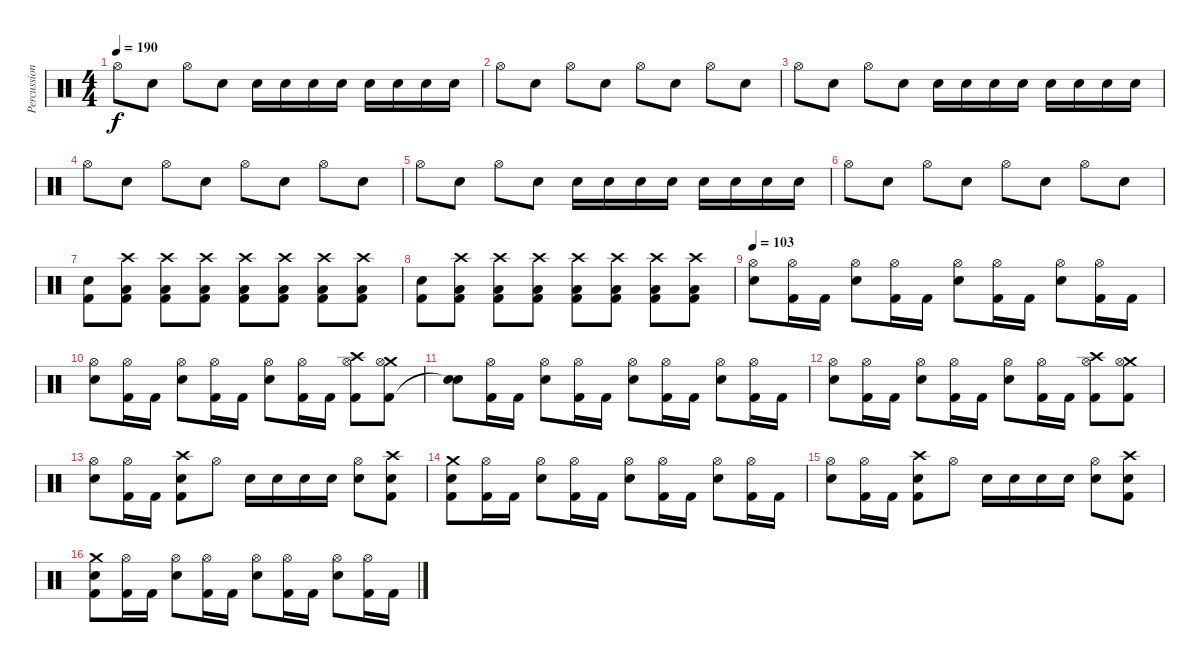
\track ("Percussions" "Percussion") {instrument percussion}
\staff {score}
\articulation defaults
\ts (4 4)
\tempo 190
\clef neutral
\ks c "Hi-Hat (open)".8{dy f} "Snare (hit) 2".8 "Hi-Hat (open)".8 "Snare (hit) 2".8 "Electric Snare (hit)".16 "Electric Snare (hit)".16 "Electric Snare (hit)".16 "Electric Snare (hit)".16 "Electric Snare (hit)".16 "Electric Snare (hit)".16 "Electric Snare (hit)".16 "Electric Snare (hit)".16
|
"Hi-Hat (open)".8 "Snare (hit) 2".8 "Hi-Hat (open)".8 "Snare (hit) 2".8 "Hi-Hat (open)".8 "Snare (hit) 2".8 "Hi-Hat (open)".8 "Snare (hit) 2".8 |
"Hi-Hat (open)".8 "Snare (hit) 2".8 "Hi-Hat (open)".8 "Snare (hit) 2".8 "Electric Snare (hit)".16 "Electric Snare (hit)".16 "Electric Snare (hit)".16 "Electric Snare (hit)".16 "Electric Snare (hit)".16 "Electric Snare (hit)".16 "Electric Snare (hit)".16 "Electric Snare (hit)".16 |
"Hi-Hat (open)".8 "Snare (hit) 2".8 "Hi-Hat (open)".8 "Snare (hit) 2".8 "Hi-Hat (open)".8 "Snare (hit) 2".8 "Hi-Hat (open)".8 "Snare (hit) 2".8 |
"Hi-Hat (open)".8 "Snare (hit) 2".8 "Hi-Hat (open)".8 "Snare (hit) 2".8 "Electric Snare (hit)".16 "Electric Snare (hit)".16 "Electric Snare (hit)".16 "Electric Snare (hit)".16 "Electric Snare (hit)".16 "Electric Snare (hit)".16 "Electric Snare (hit)".16 "Electric Snare (hit)".16 |
"Hi-Hat (open)".8 "Snare (hit) 2".8 "Hi-Hat (open)".8 "Snare (hit) 2".8 "Hi-Hat (open)".8 "Snare (hit) 2".8 "Hi-Hat (open)".8 "Snare (hit) 2".8 |
("Kick (hit) 2" "Snare (hit) 2").8 ("Kick (hit) 2" "Low Floor Tom (hit)" "Crash high (hit)").8 ("Kick (hit) 2" "Low Floor Tom (hit)" "Crash high (hit)").8 ("Kick (hit) 2" "Low Floor Tom (hit)" "Crash high (hit)").8 ("Kick (hit) 2" "Low Floor Tom (hit)" "Crash high (hit)").8 ("Kick (hit) 2" "Low Floor Tom (hit)" "Crash high (hit)").8 ("Kick (hit) 2" "Low Floor Tom (hit)" "Crash high (hit)").8 ("Kick (hit) 2" "Low Floor Tom (hit)" "Crash high (hit)").8 |
("Kick (hit) 2" "Snare (hit) 2").8 ("Kick (hit) 2" "Low Floor Tom (hit)" "Crash high (hit)").8 ("Kick (hit) 2" "Low Floor Tom (hit)" "Crash high (hit)").8 ("Kick (hit) 2" "Low Floor Tom (hit)" "Crash high (hit)").8 ("Kick (hit) 2" "Low Floor Tom (hit)" "Crash high (hit)").8 ("Kick (hit) 2" "Low Floor Tom (hit)" "Crash high (hit)").8 ("Kick (hit) 2" "Low Floor Tom (hit)" "Crash high (hit)").8 ("Kick (hit) 2" "Low Floor Tom (hit)" "Crash high (hit)").8 |
\tempo 103
("Snare (hit) 2" "Hi-Hat (open)").8 ("Kick (hit) 2" "Hi-Hat (open)").16 "Kick (hit) 2".16 ("Snare (hit) 2" "Hi-Hat (open)").8 ("Kick (hit) 2" "Hi-Hat (open)").16 "Kick (hit) 2".16 ("Snare (hit) 2" "Hi-Hat (open)").8 ("Kick (hit) 2" "Hi-Hat (open)").16 "Kick (hit) 2".16 ("Snare (hit) 2" "Hi-Hat (open)").8 ("Kick (hit) 2" "Hi-Hat (open)").16 "Kick (hit) 2".16 |
("Snare (hit) 2" "Hi-Hat (open)").8 ("Kick (hit) 2" "Hi-Hat (open)").16 "Kick (hit) 2".16 ("Snare (hit) 2" "Hi-Hat (open)").8 ("Kick (hit) 2" "Hi-Hat (open)").16 "Kick (hit) 2".16 ("Snare (hit) 2" "Hi-Hat (open)").8 ("Kick (hit) 2" "Hi-Hat (open)").16 "Kick (hit) 2".16 ("Kick (hit) 2" "Crash high (hit)" "Hi-Hat (open)").8 ("Kick (hit) 2" "Crash medium (hit)" "Hi-Hat (open)").8 |
("Snare (hit) 2"{t} "Snare (hit) 2").8 ("Kick (hit) 2" "Hi-Hat (open)").16 "Kick (hit) 2".16 ("Snare (hit) 2" "Hi-Hat (open)").8 ("Kick (hit) 2" "Hi-Hat (open)").16 "Kick (hit) 2".16 ("Snare (hit) 2" "Hi-Hat (open)").8 ("Kick (hit) 2" "Hi-Hat (open)").16 "Kick (hit) 2".16 ("Snare (hit) 2" "Hi-Hat (open)").8 ("Kick (hit) 2" "Hi-Hat (open)").16 "Kick (hit) 2".16 |
("Snare (hit) 2" "Hi-Hat (open)").8 ("Kick (hit) 2" "Hi-Hat (open)").16 "Kick (hit) 2".16 ("Snare (hit) 2" "Hi-Hat (open)").8 ("Kick (hit) 2" "Hi-Hat (open)").16 "Kick (hit) 2".16 ("Snare (hit) 2" "Hi-Hat (open)").8 ("Kick (hit) 2" "Hi-Hat (open)").16 "Kick (hit) 2".16 ("Kick (hit) 2" "Crash high (hit)" "Hi-Hat (open)").8 ("Kick (hit) 2" "Crash medium (hit)" "Hi-Hat (open)").8 |
("Snare (hit) 2" "Hi-Hat (open)").8 ("Kick (hit) 2" "Hi-Hat (open)").16 "Kick (hit) 2".16 ("Kick (hit) 2" "Snare (hit) 2" "Crash high (hit)").8 "Hi-Hat (open)".8 "Snare (hit) 2".16 "Snare (hit) 2".16 "Snare (hit) 2".16 "Snare (hit) 2".16 ("Snare (hit) 2" "Hi-Hat (open)").8 ("Kick (hit) 2" "Snare (hit) 2" "Crash high (hit)").8 |
("Kick (hit) 2" "Snare (hit) 2" "Crash medium (hit)").8 ("Kick (hit) 2" "Hi-Hat (open)").16 "Kick (hit) 2".16 ("Snare (hit) 2" "Hi-Hat (open)").8 ("Kick (hit) 2" "Hi-Hat (open)").16 "Kick (hit) 2".16 ("Snare (hit) 2" "Hi-Hat (open)").8 ("Kick (hit) 2" "Hi-Hat (open)").16 "Kick (hit) 2".16 ("Snare (hit) 2" "Hi-Hat (open)").8 ("Kick (hit) 2" "Hi-Hat (open)").16 "Kick (hit) 2".16 |
("Snare (hit) 2" "Hi-Hat (open)").8 ("Kick (hit) 2" "Hi-Hat (open)").16 "Kick (hit) 2".16 ("Kick (hit) 2" "Snare (hit) 2" "Crash high (hit)").8 "Hi-Hat (open)".8 "Snare (hit) 2".16 "Snare (hit) 2".16 "Snare (hit) 2".16 "Snare (hit) 2".16 ("Snare (hit) 2" "Hi-Hat (open)").8 ("Kick (hit) 2" "Snare (hit) 2" "Crash high (hit)").8 |
("Kick (hit) 2" "Snare (hit) 2" "Crash medium (hit)").8 ("Kick (hit) 2" "Hi-Hat (open)").16 "Kick (hit) 2".16 ("Snare (hit) 2" "Hi-Hat (open)").8 ("Kick (hit) 2" "Hi-Hat (open)").16 "Kick (hit) 2".16 ("Snare (hit) 2" "Hi-Hat (open)").8 ("Kick (hit) 2" "Hi-Hat (open)").16 "Kick (hit) 2".16 ("Snare (hit) 2" "Hi-Hat (open)").8 ("Kick (hit) 2" "Hi-Hat (open)").16 "Kick (hit) 2".16
